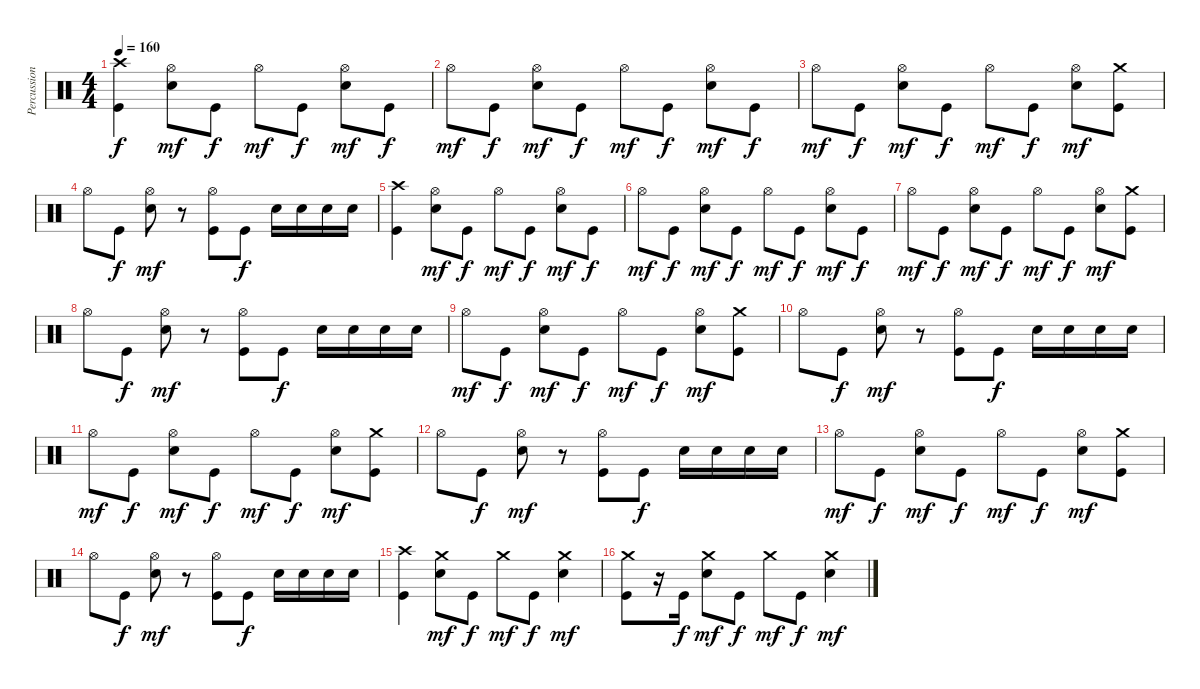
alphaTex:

\track ("Percussion" "Percussion") {instrument percussion}
\staff {score}
\articulation defaults
\ts (4 4)
\tempo 160
\clef neutral
\ks c
("Kick (hit)" "Crash high (hit)").4{dy f} ("Electric Snare (hit)" "Hi-Hat (open)").8{dy mf} "Kick (hit)".8{dy f} "Hi-Hat (open)".8{dy mf} "Kick (hit)".8{dy f} ("Electric Snare (hit)" "Hi-Hat (open)").8{dy mf} "Kick (hit)".8{dy f} |
"Hi-Hat (open)".8{dy mf} "Kick (hit)".8{dy f} ("Electric Snare (hit)" "Hi-Hat (open)").8{dy mf} "Kick (hit)".8{dy f} "Hi-Hat (open)".8{dy mf} "Kick (hit)".8{dy f} ("Electric Snare (hit)" "Hi-Hat (open)").8{dy mf} "Kick (hit)".8{dy f} |
"Hi-Hat (open)".8{dy mf} "Kick (hit)".8{dy f} ("Electric Snare (hit)" "Hi-Hat (open)").8{dy mf} "Kick (hit)".8{dy f} "Hi-Hat (open)".8{dy mf} "Kick (hit)".8{dy f} ("Electric Snare (hit)" "Hi-Hat (open)").8{dy mf} ("Kick (hit)" "Crash medium (hit)").8 |
"Hi-Hat (open)".8 "Kick (hit)".8{dy f} ("Electric Snare (hit)" "Hi-Hat (open)").8{dy mf} r.8 ("Kick (hit)" "Hi-Hat (open)").8 "Kick (hit)".8{dy f} "Electric Snare (hit)".16 "Electric Snare (hit)".16 "Electric Snare (hit)".16 "Electric Snare (hit)".16 |
("Kick (hit)" "Crash high (hit)").4 ("Electric Snare (hit)" "Hi-Hat (open)").8{dy mf} "Kick (hit)".8{dy f} "Hi-Hat (open)".8{dy mf} "Kick (hit)".8{dy f} ("Electric Snare (hit)" "Hi-Hat (open)").8{dy mf} "Kick (hit)".8{dy f} |
"Hi-Hat (open)".8{dy mf} "Kick (hit)".8{dy f} ("Electric Snare (hit)" "Hi-Hat (open)").8{dy mf} "Kick (hit)".8{dy f} "Hi-Hat (open)".8{dy mf} "Kick (hit)".8{dy f} ("Electric Snare (hit)" "Hi-Hat (open)").8{dy mf} "Kick (hit)".8{dy f} |
"Hi-Hat (open)".8{dy mf} "Kick (hit)".8{dy f} ("Electric Snare (hit)" "Hi-Hat (open)").8{dy mf} "Kick (hit)".8{dy f} "Hi-Hat (open)".8{dy mf} "Kick (hit)".8{dy f} ("Electric Snare (hit)" "Hi-Hat (open)").8{dy mf} ("Kick (hit)" "Crash medium (hit)").8 |
"Hi-Hat (open)".8 "Kick (hit)".8{dy f} ("Electric Snare (hit)" "Hi-Hat (open)").8{dy mf} r.8 ("Kick (hit)" "Hi-Hat (open)").8 "Kick (hit)".8{dy f} "Electric Snare (hit)".16 "Electric Snare (hit)".16 "Electric Snare (hit)".16 "Electric Snare (hit)".16 |
"Hi-Hat (open)".8{dy mf} "Kick (hit)".8{dy f} ("Electric Snare (hit)" "Hi-Hat (open)").8{dy mf} "Kick (hit)".8{dy f} "Hi-Hat (open)".8{dy mf} "Kick (hit)".8{dy f} ("Electric Snare (hit)" "Hi-Hat (open)").8{dy mf} ("Kick (hit)" "Crash medium (hit)").8 |
"Hi-Hat (open)".8 "Kick (hit)".8{dy f} ("Electric Snare (hit)" "Hi-Hat (open)").8{dy mf} r.8 ("Kick (hit)" "Hi-Hat (open)").8 "Kick (hit)".8{dy f} "Electric Snare (hit)".16 "Electric Snare (hit)".16 "Electric Snare (hit)".16 "Electric Snare (hit)".16 |
"Hi-Hat (open)".8{dy mf} "Kick (hit)".8{dy f} ("Electric Snare (hit)" "Hi-Hat (open)").8{dy mf} "Kick (hit)".8{dy f} "Hi-Hat (open)".8{dy mf} "Kick (hit)".8{dy f} ("Electric Snare (hit)" "Hi-Hat (open)").8{dy mf} ("Kick (hit)" "Crash medium (hit)").8 |
"Hi-Hat (open)".8 "Kick (hit)".8{dy f} ("Electric Snare (hit)" "Hi-Hat (open)").8{dy mf} r.8 ("Kick (hit)" "Hi-Hat (open)").8 "Kick (hit)".8{dy f} "Electric Snare (hit)".16 "Electric Snare (hit)".16 "Electric Snare (hit)".16 "Electric Snare (hit)".16 |
"Hi-Hat (open)".8{dy mf} "Kick (hit)".8{dy f} ("Electric Snare (hit)" "Hi-Hat (open)").8{dy mf} "Kick (hit)".8{dy f} "Hi-Hat (open)".8{dy mf} "Kick (hit)".8{dy f} ("Electric Snare (hit)" "Hi-Hat (open)").8{dy mf} ("Kick (hit)" "Crash medium (hit)").8 |
"Hi-Hat (open)".8 "Kick (hit)".8{dy f} ("Electric Snare (hit)" "Hi-Hat (open)").8{dy mf} r.8 ("Kick (hit)" "Hi-Hat (open)").8 "Kick (hit)".8{dy f} "Electric Snare (hit)".16 "Electric Snare (hit)".16 "Electric Snare (hit)".16 "Electric Snare (hit)".16 |
("Kick (hit)" "Crash high (hit)").4 ("Electric Snare (hit)" "Crash medium (hit)").8{dy mf} "Kick (hit)".8{dy f} "Crash medium (hit)".8{dy mf} "Kick (hit)".8{dy f} ("Electric Snare (hit)" "Crash medium (hit)").4{dy mf} |
("Kick (hit)" "Crash medium (hit)").8 r.16 "Kick (hit)".16{dy f} ("Electric Snare (hit)" "Crash medium (hit)").8{dy mf} "Kick (hit)".8{dy f} "Crash medium (hit)".8{dy mf} "Kick (hit)".8{dy f} ("Electric Snare (hit)" "Crash medium (hit)").4{dy mf}
